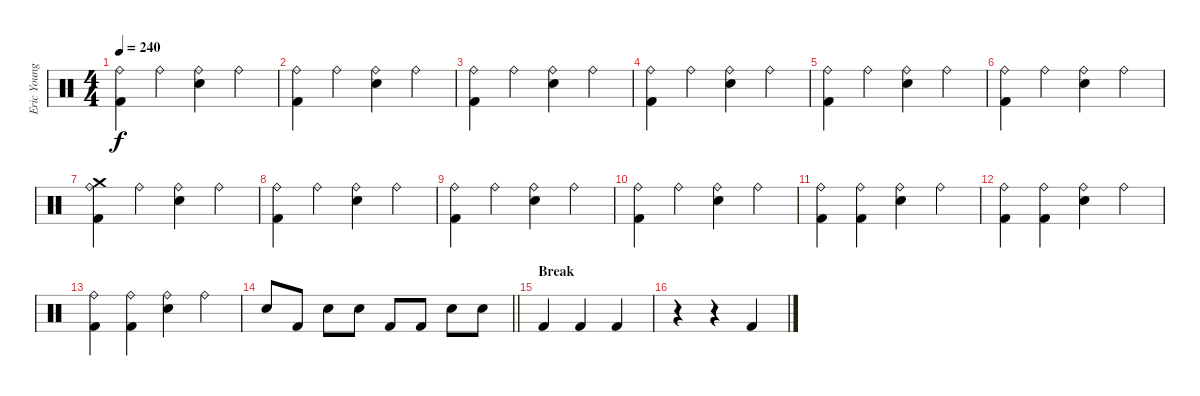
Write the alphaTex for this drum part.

\track ("Eric Young (Drums)" "Eric Young") {instrument percussion}
\staff {score}
\articulation defaults
\ts (4 4)
\tempo 240
\clef neutral
\ks c
("Ride (bell)" "Kick (hit) 2").4{dy f} "Ride (bell)".4 ("Ride (bell)" "Snare (hit) 2").4 "Ride (bell)".4 |
("Ride (bell)" "Kick (hit) 2").4 "Ride (bell)".4 ("Ride (bell)" "Snare (hit) 2").4 "Ride (bell)".4 |
("Ride (bell)" "Kick (hit) 2").4 "Ride (bell)".4 ("Ride (bell)" "Snare (hit) 2").4 "Ride (bell)".4 |
("Ride (bell)" "Kick (hit) 2").4 "Ride (bell)".4 ("Ride (bell)" "Snare (hit) 2").4 "Ride (bell)".4 |
("Ride (bell)" "Kick (hit) 2").4 "Ride (bell)".4 ("Ride (bell)" "Snare (hit) 2").4 "Ride (bell)".4 |
("Ride (bell)" "Kick (hit) 2").4 "Ride (bell)".4 ("Ride (bell)" "Snare (hit) 2").4 "Ride (bell)".4 |
("Ride (bell)" "Kick (hit) 2" "Crash medium (hit)").4 "Ride (bell)".4 ("Ride (bell)" "Snare (hit) 2").4 "Ride (bell)".4 |
("Ride (bell)" "Kick (hit) 2").4 "Ride (bell)".4 ("Ride (bell)" "Snare (hit) 2").4 "Ride (bell)".4 |
("Ride (bell)" "Kick (hit) 2").4 "Ride (bell)".4 ("Ride (bell)" "Snare (hit) 2").4 "Ride (bell)".4 |
("Ride (bell)" "Kick (hit) 2").4 "Ride (bell)".4 ("Ride (bell)" "Snare (hit) 2").4 "Ride (bell)".4 |
("Ride (bell)" "Kick (hit) 2").4 ("Ride (bell)" "Kick (hit) 2").4 ("Ride (bell)" "Snare (hit) 2").4 "Ride (bell)".4 |
("Ride (bell)" "Kick (hit) 2").4 ("Ride (bell)" "Kick (hit) 2").4 ("Ride (bell)" "Snare (hit) 2").4 "Ride (bell)".4 |
("Ride (bell)" "Kick (hit) 2").4 ("Ride (bell)" "Kick (hit) 2").4 ("Ride (bell)" "Snare (hit) 2").4 "Ride (bell)".4 |
\barLineRight lightlight "Snare (hit) 2".8 "Kick (hit) 2".8 "Snare (hit) 2".8 "Snare (hit) 2".8 "Kick (hit) 2".8 "Kick (hit) 2".8 "Snare (hit) 2".8 "Snare (hit) 2".8
|
\section ("" "Break")
"Kick (hit) 2".4 "Kick (hit) 2".4 "Kick (hit) 2".4 |
r.4 r.4 "Kick (hit) 2".4
